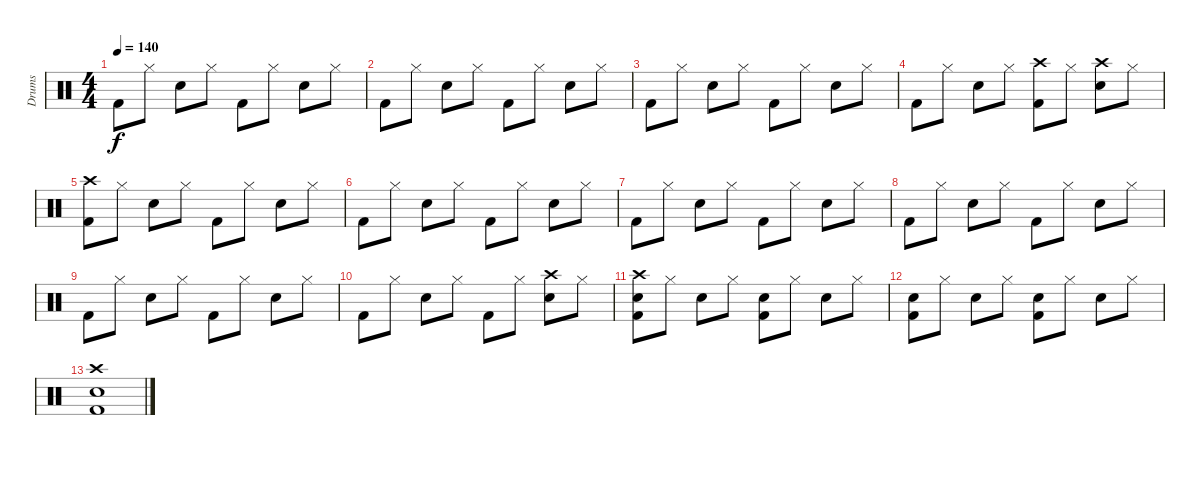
\track ("Drums" "Drums") {instrument percussion}
\staff {score}
\articulation defaults
\ts (4 4)
\tempo 140
\clef neutral
\ks c "Kick (hit) 2".8{dy f} "Hi-Hat (closed)".8 "Snare (hit) 2".8 "Hi-Hat (closed)".8 "Kick (hit) 2".8 "Hi-Hat (closed)".8 "Snare (hit) 2".8 "Hi-Hat (closed)".8
|
"Kick (hit) 2".8 "Hi-Hat (closed)".8 "Snare (hit) 2".8 "Hi-Hat (closed)".8 "Kick (hit) 2".8 "Hi-Hat (closed)".8 "Snare (hit) 2".8 "Hi-Hat (closed)".8 |
"Kick (hit) 2".8 "Hi-Hat (closed)".8 "Snare (hit) 2".8 "Hi-Hat (closed)".8 "Kick (hit) 2".8 "Hi-Hat (closed)".8 "Snare (hit) 2".8 "Hi-Hat (closed)".8 |
"Kick (hit) 2".8 "Hi-Hat (closed)".8 "Snare (hit) 2".8 "Hi-Hat (closed)".8 ("Kick (hit) 2" "Crash high (hit)").8 "Hi-Hat (closed)".8 ("Snare (hit) 2" "Crash high (hit)").8 "Hi-Hat (closed)".8 |
("Kick (hit) 2" "Crash high (hit)").8 "Hi-Hat (closed)".8 "Snare (hit) 2".8 "Hi-Hat (closed)".8 "Kick (hit) 2".8 "Hi-Hat (closed)".8 "Snare (hit) 2".8 "Hi-Hat (closed)".8 |
"Kick (hit) 2".8 "Hi-Hat (closed)".8 "Snare (hit) 2".8 "Hi-Hat (closed)".8 "Kick (hit) 2".8 "Hi-Hat (closed)".8 "Snare (hit) 2".8 "Hi-Hat (closed)".8 |
"Kick (hit) 2".8 "Hi-Hat (closed)".8 "Snare (hit) 2".8 "Hi-Hat (closed)".8 "Kick (hit) 2".8 "Hi-Hat (closed)".8 "Snare (hit) 2".8 "Hi-Hat (closed)".8 |
"Kick (hit) 2".8 "Hi-Hat (closed)".8 "Snare (hit) 2".8 "Hi-Hat (closed)".8 "Kick (hit) 2".8 "Hi-Hat (closed)".8 "Snare (hit) 2".8 "Hi-Hat (closed)".8 |
"Kick (hit) 2".8 "Hi-Hat (closed)".8 "Snare (hit) 2".8 "Hi-Hat (closed)".8 "Kick (hit) 2".8 "Hi-Hat (closed)".8 "Snare (hit) 2".8 "Hi-Hat (closed)".8 |
"Kick (hit) 2".8 "Hi-Hat (closed)".8 "Snare (hit) 2".8 "Hi-Hat (closed)".8 "Kick (hit) 2".8 "Hi-Hat (closed)".8 ("Snare (hit) 2" "Crash high (hit)").8 "Hi-Hat (closed)".8 |
("Kick (hit) 2" "Crash high (hit)" "Snare (hit) 2").8 "Hi-Hat (closed)".8 "Snare (hit) 2".8 "Hi-Hat (closed)".8 ("Kick (hit) 2" "Snare (hit) 2").8 "Hi-Hat (closed)".8 "Snare (hit) 2".8 "Hi-Hat (closed)".8 |
("Kick (hit) 2" "Snare (hit) 2").8 "Hi-Hat (closed)".8 "Snare (hit) 2".8 "Hi-Hat (closed)".8 ("Kick (hit) 2" "Snare (hit) 2").8 "Hi-Hat (closed)".8 "Snare (hit) 2".8 "Hi-Hat (closed)".8 |
("Kick (hit) 2" "Snare (hit) 2" "Crash high (hit)").1
